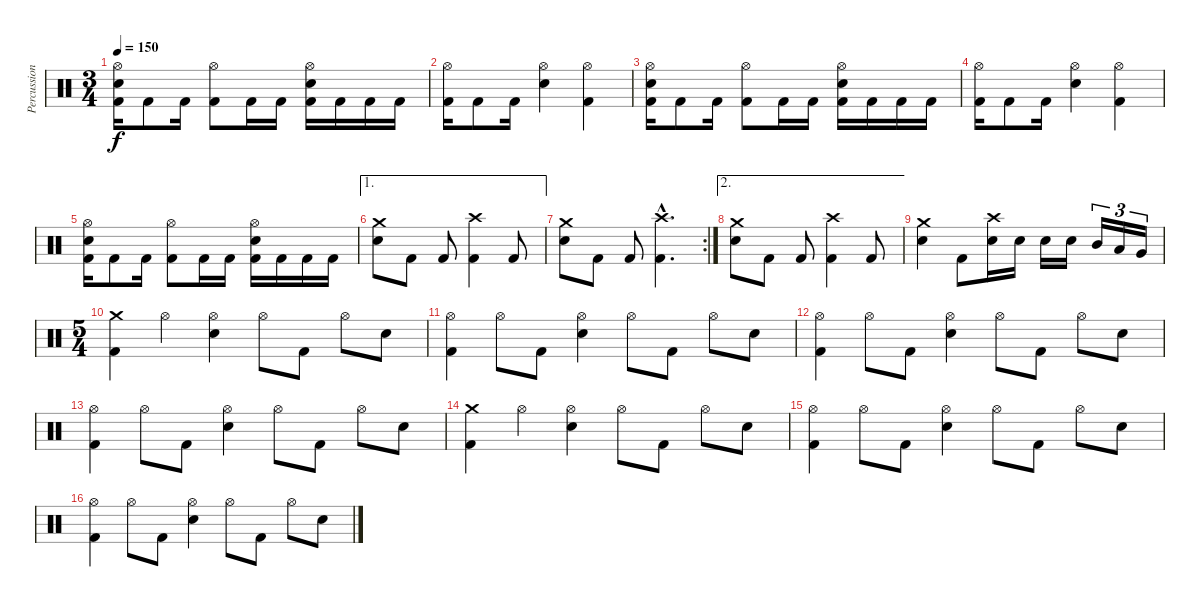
\track ("Percussion" "Percussion") {instrument percussion}
\staff {score}
\articulation defaults
\ts (3 4)
\tempo 150
\clef neutral
\ks aminor
("Hi-Hat (open)" "Electric Snare (hit)" "Kick (hit) 2").16{dy f} "Kick (hit) 2".8 "Kick (hit) 2".16 ("Hi-Hat (open)" "Kick (hit) 2").8 "Kick (hit) 2".16 "Kick (hit) 2".16 ("Hi-Hat (open)" "Electric Snare (hit)" "Kick (hit) 2").16 "Kick (hit) 2".16 "Kick (hit) 2".16 "Kick (hit) 2".16 |
("Hi-Hat (open)" "Kick (hit) 2").16 "Kick (hit) 2".8 "Kick (hit) 2".16 ("Hi-Hat (open)" "Electric Snare (hit)").4 ("Hi-Hat (open)" "Kick (hit) 2").4 |
("Hi-Hat (open)" "Electric Snare (hit)" "Kick (hit) 2").16 "Kick (hit) 2".8 "Kick (hit) 2".16 ("Hi-Hat (open)" "Kick (hit) 2").8 "Kick (hit) 2".16 "Kick (hit) 2".16 ("Hi-Hat (open)" "Electric Snare (hit)" "Kick (hit) 2").16 "Kick (hit) 2".16 "Kick (hit) 2".16 "Kick (hit) 2".16 |
("Hi-Hat (open)" "Kick (hit) 2").16 "Kick (hit) 2".8 "Kick (hit) 2".16 ("Hi-Hat (open)" "Electric Snare (hit)").4 ("Hi-Hat (open)" "Kick (hit) 2").4 |
("Hi-Hat (open)" "Electric Snare (hit)" "Kick (hit) 2").16 "Kick (hit) 2".8 "Kick (hit) 2".16 ("Hi-Hat (open)" "Kick (hit) 2").8 "Kick (hit) 2".16 "Kick (hit) 2".16 ("Hi-Hat (open)" "Electric Snare (hit)" "Kick (hit) 2").16 "Kick (hit) 2".16 "Kick (hit) 2".16 "Kick (hit) 2".16 |
\ae 1
("Crash medium (hit)" "Electric Snare (hit)").8 "Kick (hit) 2".8 "Kick (hit) 2".8 ("Crash high (hit)" "Kick (hit) 2").4 "Kick (hit) 2".8 |
\rc 2
("Crash medium (hit)" "Electric Snare (hit)").8 "Kick (hit) 2".8 "Kick (hit) 2".8 ("Crash high (hit)"{hac} "Kick (hit) 2"{hac}).4{d} |
\ae 2
("Crash medium (hit)" "Electric Snare (hit)").8 "Kick (hit) 2".8 "Kick (hit) 2".8 ("Crash high (hit)" "Kick (hit) 2").4 "Kick (hit) 2".8 |
("Crash medium (hit)" "Electric Snare (hit)").4 "Kick (hit) 2".8 ("Crash high (hit)" "Electric Snare (hit)").16 "Electric Snare (hit)".16 "Electric Snare (hit)".16 "Electric Snare (hit)".16 "Mid Tom (hit)".16{tu (3 2)} "Low Tom (hit)".16{tu (3 2)} "Very Low Tom (hit)".16{tu (3 2)} |
\ts (5 4)
("Crash medium (hit)" "Kick (hit) 2").4 "Hi-Hat (open)".4 ("Hi-Hat (open)" "Electric Snare (hit)").4 "Hi-Hat (open)".8 "Kick (hit) 2".8 "Hi-Hat (open)".8 "Electric Snare (hit)".8 |
("Hi-Hat (open)" "Kick (hit) 2").4 "Hi-Hat (open)".8 "Kick (hit) 2".8 ("Hi-Hat (open)" "Electric Snare (hit)").4 "Hi-Hat (open)".8 "Kick (hit) 2".8 "Hi-Hat (open)".8 "Electric Snare (hit)".8 |
("Hi-Hat (open)" "Kick (hit) 2").4 "Hi-Hat (open)".8 "Kick (hit) 2".8 ("Hi-Hat (open)" "Electric Snare (hit)").4 "Hi-Hat (open)".8 "Kick (hit) 2".8 "Hi-Hat (open)".8 "Electric Snare (hit)".8 |
("Hi-Hat (open)" "Kick (hit) 2").4 "Hi-Hat (open)".8 "Kick (hit) 2".8 ("Hi-Hat (open)" "Electric Snare (hit)").4 "Hi-Hat (open)".8 "Kick (hit) 2".8 "Hi-Hat (open)".8 "Electric Snare (hit)".8 |
("Crash medium (hit)" "Kick (hit) 2").4 "Hi-Hat (open)".4 ("Hi-Hat (open)" "Electric Snare (hit)").4 "Hi-Hat (open)".8 "Kick (hit) 2".8 "Hi-Hat (open)".8 "Electric Snare (hit)".8 |
("Hi-Hat (open)" "Kick (hit) 2").4 "Hi-Hat (open)".8 "Kick (hit) 2".8 ("Hi-Hat (open)" "Electric Snare (hit)").4 "Hi-Hat (open)".8 "Kick (hit) 2".8 "Hi-Hat (open)".8 "Electric Snare (hit)".8 |
("Hi-Hat (open)" "Kick (hit) 2").4 "Hi-Hat (open)".8 "Kick (hit) 2".8 ("Hi-Hat (open)" "Electric Snare (hit)").4 "Hi-Hat (open)".8 "Kick (hit) 2".8 "Hi-Hat (open)".8 "Electric Snare (hit)".8
